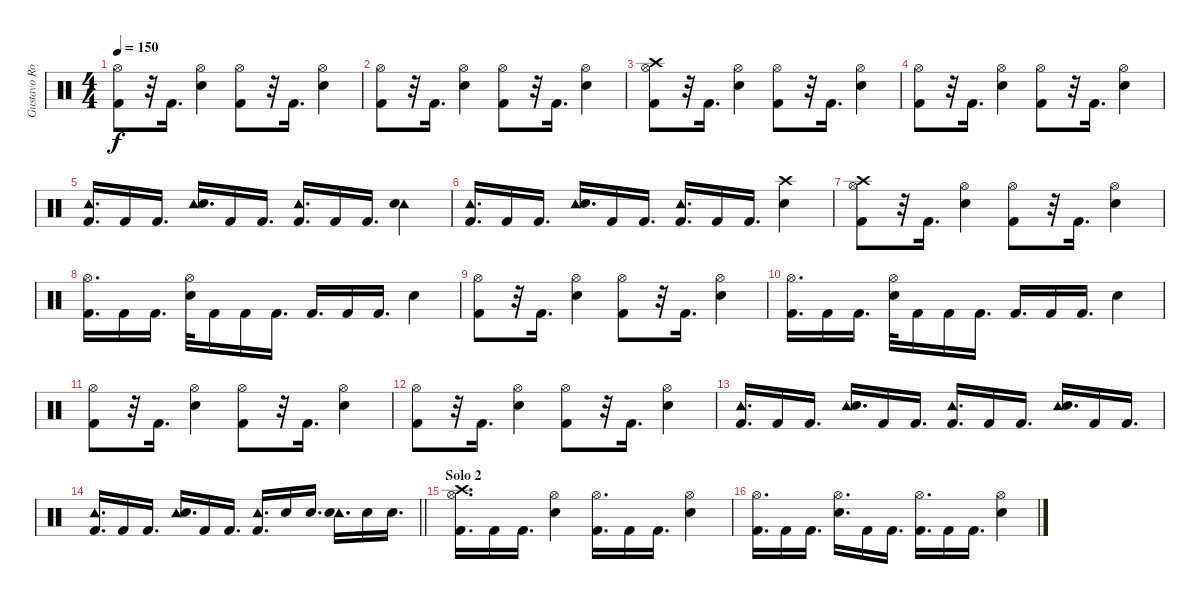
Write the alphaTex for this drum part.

\track ("Gustavo Rowek" "Gustavo Ro") {instrument percussion}
\staff {score}
\articulation defaults
\ts (4 4)
\tempo 150
\clef neutral
\ks c
("Hi-Hat (open)" "Kick (hit) 2").8{dy f} r.32 "Kick (hit) 2".16{d} ("Hi-Hat (open)" "Electric Snare (hit)").4 ("Hi-Hat (open)" "Kick (hit) 2").8 r.32 "Kick (hit) 2".16{d} ("Hi-Hat (open)" "Electric Snare (hit)").4 |
("Hi-Hat (open)" "Kick (hit) 2").8 r.32 "Kick (hit) 2".16{d} ("Hi-Hat (open)" "Electric Snare (hit)").4 ("Hi-Hat (open)" "Kick (hit) 2").8 r.32 "Kick (hit) 2".16{d} ("Hi-Hat (open)" "Electric Snare (hit)").4 |
("Crash high (hit)" "Hi-Hat (open)" "Kick (hit) 2").8 r.32 "Kick (hit) 2".16{d} ("Hi-Hat (open)" "Electric Snare (hit)").4 ("Hi-Hat (open)" "Kick (hit) 2").8 r.32 "Kick (hit) 2".16{d} ("Hi-Hat (open)" "Electric Snare (hit)").4 |
("Hi-Hat (open)" "Kick (hit) 2").8 r.32 "Kick (hit) 2".16{d} ("Hi-Hat (open)" "Electric Snare (hit)").4 ("Hi-Hat (open)" "Kick (hit) 2").8 r.32 "Kick (hit) 2".16{d} ("Hi-Hat (open)" "Electric Snare (hit)").4 |
("Tambourine (hit)" "Kick (hit) 2").16{d} "Kick (hit) 2".16 "Kick (hit) 2".16{d} ("Tambourine (hit)" "Electric Snare (hit)").16{d} "Kick (hit) 2".16 "Kick (hit) 2".16{d} ("Tambourine (hit)" "Kick (hit) 2").16{d} "Kick (hit) 2".16 "Kick (hit) 2".16{d} ("Tambourine (hit)" "Electric Snare (hit)").4 |
("Tambourine (hit)" "Kick (hit) 2").16{d} "Kick (hit) 2".16 "Kick (hit) 2".16{d} ("Tambourine (hit)" "Electric Snare (hit)").16{d} "Kick (hit) 2".16 "Kick (hit) 2".16{d} ("Tambourine (hit)" "Kick (hit) 2").16{d} "Kick (hit) 2".16 "Kick (hit) 2".16{d} ("Crash high (hit)" "Electric Snare (hit)").4 |
("Crash high (hit)" "Hi-Hat (open)" "Kick (hit) 2").8 r.32 "Kick (hit) 2".16{d} ("Hi-Hat (open)" "Electric Snare (hit)").4 ("Hi-Hat (open)" "Kick (hit) 2").8 r.32 "Kick (hit) 2".16{d} ("Hi-Hat (open)" "Electric Snare (hit)").4 |
("Hi-Hat (open)" "Kick (hit) 2").16{d} "Kick (hit) 2".16 "Kick (hit) 2".16{d} ("Hi-Hat (open)" "Electric Snare (hit)").32 "Kick (hit) 2".16 "Kick (hit) 2".16 "Kick (hit) 2".16{d} "Kick (hit) 2".16{d} "Kick (hit) 2".16 "Kick (hit) 2".16{d} "Electric Snare (hit)".4 |
("Hi-Hat (open)" "Kick (hit) 2").8 r.32 "Kick (hit) 2".16{d} ("Hi-Hat (open)" "Electric Snare (hit)").4 ("Hi-Hat (open)" "Kick (hit) 2").8 r.32 "Kick (hit) 2".16{d} ("Hi-Hat (open)" "Electric Snare (hit)").4 |
("Hi-Hat (open)" "Kick (hit) 2").16{d} "Kick (hit) 2".16 "Kick (hit) 2".16{d} ("Hi-Hat (open)" "Electric Snare (hit)").32 "Kick (hit) 2".16 "Kick (hit) 2".16 "Kick (hit) 2".16{d} "Kick (hit) 2".16{d} "Kick (hit) 2".16 "Kick (hit) 2".16{d} "Electric Snare (hit)".4 |
("Hi-Hat (open)" "Kick (hit) 2").8 r.32 "Kick (hit) 2".16{d} ("Hi-Hat (open)" "Electric Snare (hit)").4 ("Hi-Hat (open)" "Kick (hit) 2").8 r.32 "Kick (hit) 2".16{d} ("Hi-Hat (open)" "Electric Snare (hit)").4 |
("Hi-Hat (open)" "Kick (hit) 2").8 r.32 "Kick (hit) 2".16{d} ("Hi-Hat (open)" "Electric Snare (hit)").4 ("Hi-Hat (open)" "Kick (hit) 2").8 r.32 "Kick (hit) 2".16{d} ("Hi-Hat (open)" "Electric Snare (hit)").4 |
("Tambourine (hit)" "Kick (hit) 2").16{d} "Kick (hit) 2".16 "Kick (hit) 2".16{d} ("Tambourine (hit)" "Electric Snare (hit)").16{d} "Kick (hit) 2".16 "Kick (hit) 2".16{d} ("Tambourine (hit)" "Kick (hit) 2").16{d} "Kick (hit) 2".16 "Kick (hit) 2".16{d} ("Tambourine (hit)" "Electric Snare (hit)").16{d} "Kick (hit) 2".16 "Kick (hit) 2".16{d} |
\barLineRight lightlight
("Tambourine (hit)" "Kick (hit) 2").16{d} "Kick (hit) 2".16 "Kick (hit) 2".16{d} ("Tambourine (hit)" "Electric Snare (hit)").16{d} "Kick (hit) 2".16 "Kick (hit) 2".16{d} ("Tambourine (hit)" "Kick (hit) 2").16{d} "Electric Snare (hit)".16 "Electric Snare (hit)".16{d} ("Tambourine (hit)" "Electric Snare (hit)").16{d} "Electric Snare (hit)".16 "Electric Snare (hit)".16{d} |
\section ("" "Solo 2")
("Crash high (hit)" "Hi-Hat (open)" "Kick (hit) 2").16{d} "Kick (hit) 2".16 "Kick (hit) 2".16{d} ("Hi-Hat (open)" "Electric Snare (hit)").4 ("Hi-Hat (open)" "Kick (hit) 2").16{d} "Kick (hit) 2".16 "Kick (hit) 2".16{d} ("Hi-Hat (open)" "Electric Snare (hit)").4 |
("Hi-Hat (open)" "Kick (hit) 2").16{d} "Kick (hit) 2".16 "Kick (hit) 2".16{d} ("Hi-Hat (open)" "Electric Snare (hit)").16{d} "Kick (hit) 2".16 "Kick (hit) 2".16{d} ("Hi-Hat (open)" "Kick (hit) 2").16{d} "Kick (hit) 2".16 "Kick (hit) 2".16{d} ("Hi-Hat (open)" "Electric Snare (hit)").4
